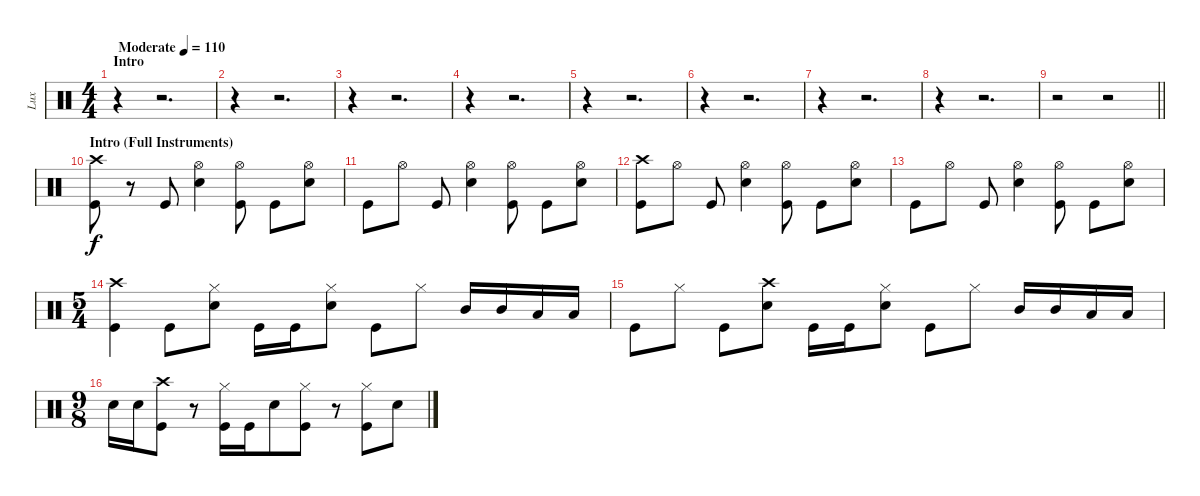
\track ("Lux" "Lux") {mute instrument percussion}
\staff {score}
\articulation defaults
\ts (4 4)
\section ("" "Intro")
\tempo (110 "Moderate")
\clef neutral
\ks c
r.4{dy f} r.2{d} |
r.4 r.2{d} |
r.4 r.2{d} |
r.4 r.2{d} |
r.4 r.2{d} |
r.4 r.2{d} |
r.4 r.2{d} |
r.4 r.2{d} |
\barLineRight lightlight
r.2 r.2 |
\section ("" "Intro (Full Instruments)")
("Crash high (hit)" "Kick (hit)").8 r.8 "Kick (hit)".8 ("Hi-Hat (open)" "Snare (hit) 2").4 ("Hi-Hat (open)" "Kick (hit)").8 "Kick (hit)".8 ("Hi-Hat (open)" "Snare (hit) 2").8 |
"Kick (hit)".8 "Hi-Hat (open)".8 "Kick (hit)".8 ("Hi-Hat (open)" "Snare (hit) 2").4 ("Hi-Hat (open)" "Kick (hit)").8 "Kick (hit)".8 ("Hi-Hat (open)" "Snare (hit) 2").8 |
("Crash high (hit)" "Kick (hit)").8 "Hi-Hat (open)".8 "Kick (hit)".8 ("Hi-Hat (open)" "Snare (hit) 2").4 ("Hi-Hat (open)" "Kick (hit)").8 "Kick (hit)".8 ("Hi-Hat (open)" "Snare (hit) 2").8 |
"Kick (hit)".8 "Hi-Hat (open)".8 "Kick (hit)".8 ("Hi-Hat (open)" "Snare (hit) 2").4 ("Hi-Hat (open)" "Kick (hit)").8 "Kick (hit)".8 ("Hi-Hat (open)" "Snare (hit) 2").8 |
\ts (5 4)
("Crash high (hit)" "Kick (hit)").4 "Kick (hit)".8 ("Hi-Hat (closed)" "Snare (hit) 2").8 "Kick (hit)".16 "Kick (hit)".16 ("Hi-Hat (closed)" "Snare (hit) 2").8 "Kick (hit)".8 "Hi-Hat (closed)".8 "Mid Tom (hit)".16 "Mid Tom (hit)".16 "Low Tom (hit)".16 "Low Tom (hit)".16 |
"Kick (hit)".8 "Hi-Hat (closed)".8 "Kick (hit)".8 ("Crash high (hit)" "Snare (hit) 2").8 "Kick (hit)".16 "Kick (hit)".16 ("Hi-Hat (closed)" "Snare (hit) 2").8 "Kick (hit)".8 "Hi-Hat (closed)".8 "Mid Tom (hit)".16 "Mid Tom (hit)".16 "Low Tom (hit)".16 "Low Tom (hit)".16 |
\ts (9 8)
"Snare (hit) 2".16 "Snare (hit) 2".16 ("Crash high (hit)" "Kick (hit)").8 r.8 ("Hi-Hat (closed)" "Kick (hit)").16 "Kick (hit)".16 "Snare (hit) 2".8 ("Hi-Hat (closed)" "Kick (hit)").8 r.8 ("Hi-Hat (closed)" "Kick (hit)").8 "Snare (hit) 2".8
